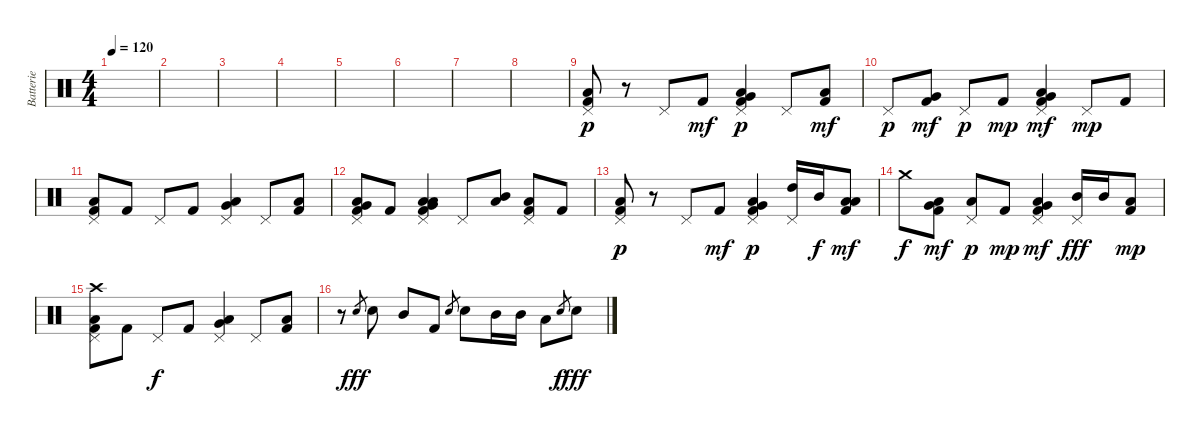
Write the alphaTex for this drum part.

\track ("Batterie" "Batterie") {instrument percussion}
\staff {score}
\articulation defaults
\ts (4 4)
\tempo 120
\clef neutral
\ks c
|
|
|
|
|
|
|
|
("Pedal Hi-Hat (hit)" "Low Floor Tom (hit)" "Kick (hit) 2").8{dy p} r.8 "Pedal Hi-Hat (hit)".8 "Kick (hit) 2".8{dy mf} ("Pedal Hi-Hat (hit)" "Very Low Tom (hit)" "Low Floor Tom (hit)" "Kick (hit) 2").4{dy p} "Pedal Hi-Hat (hit)".8 ("Low Floor Tom (hit)" "Kick (hit) 2").8{dy mf} |
"Pedal Hi-Hat (hit)".8{dy p} ("Very Low Tom (hit)" "Kick (hit) 2").8{dy mf} "Pedal Hi-Hat (hit)".8{dy p} "Kick (hit) 2".8{dy mp} ("Pedal Hi-Hat (hit)" "Very Low Tom (hit)" "Low Floor Tom (hit)" "Kick (hit) 2").4{dy mf} "Pedal Hi-Hat (hit)".8{dy mp} "Kick (hit) 2".8 |
("Pedal Hi-Hat (hit)" "Low Floor Tom (hit)" "Kick (hit) 2").8 "Kick (hit) 2".8 "Pedal Hi-Hat (hit)".8 "Kick (hit) 2".8 ("Pedal Hi-Hat (hit)" "Very Low Tom (hit)" "Low Floor Tom (hit)").4 "Pedal Hi-Hat (hit)".8 ("Low Floor Tom (hit)" "Kick (hit) 2").8 |
("Pedal Hi-Hat (hit)" "Very Low Tom (hit)" "Low Floor Tom (hit)" "Kick (hit) 2").8 "Kick (hit) 2".8 ("Pedal Hi-Hat (hit)" "Low Floor Tom (hit)" "Low Tom (hit)" "Very Low Tom (hit)" "Kick (hit) 2").4 "Pedal Hi-Hat (hit)".8 ("Mid Tom (hit)" "Low Tom (hit)").8 ("Pedal Hi-Hat (hit)" "Low Floor Tom (hit)" "Kick (hit) 2").8 "Kick (hit) 2".8 |
("Pedal Hi-Hat (hit)" "Low Floor Tom (hit)" "Kick (hit) 2").8{dy p} r.8 "Pedal Hi-Hat (hit)".8 "Kick (hit) 2".8{dy mf} ("Pedal Hi-Hat (hit)" "Very Low Tom (hit)" "Low Floor Tom (hit)" "Kick (hit) 2").4{dy p} ("Pedal Hi-Hat (hit)" "High Tom (hit)").16 "Mid Tom (hit)".16{dy f} ("Low Tom (hit)" "Low Floor Tom (hit)" "Kick (hit) 2").8{dy mf} |
"Crash medium (hit)".8{dy f} ("Low Floor Tom (hit)" "Very Low Tom (hit)" "Kick (hit) 2").8{dy mf} ("Pedal Hi-Hat (hit)" "Low Floor Tom (hit)").8{dy p} "Kick (hit) 2".8{dy mp} ("Pedal Hi-Hat (hit)" "Very Low Tom (hit)" "Low Floor Tom (hit)" "Kick (hit) 2").4{dy mf} ("Pedal Hi-Hat (hit)" "Mid Tom (hit)").16{dy fff} "Mid Tom (hit)".16 ("Low Tom (hit)" "Kick (hit) 2").8{dy mp} |
("Crash high (hit)" "Pedal Hi-Hat (hit)" "Low Floor Tom (hit)" "Kick (hit) 2").8 "Kick (hit) 2".8 "Pedal Hi-Hat (hit)".8{dy f} "Kick (hit) 2".8 ("Pedal Hi-Hat (hit)" "Very Low Tom (hit)" "Low Floor Tom (hit)").4 "Pedal Hi-Hat (hit)".8 ("Low Floor Tom (hit)" "Kick (hit) 2").8 |
r.8 "Electric Snare (hit)".8{gr dy fff} "Electric Snare (hit)".8 "Mid Tom (hit)".8 "Kick (hit) 2".8 "Electric Snare (hit)".8{gr} "Electric Snare (hit)".8 "Mid Tom (hit)".16 "Mid Tom (hit)".16 "Low Tom (hit)".8 "Electric Snare (hit)".8{gr dy f} "Electric Snare (hit)".8{dy fff}
